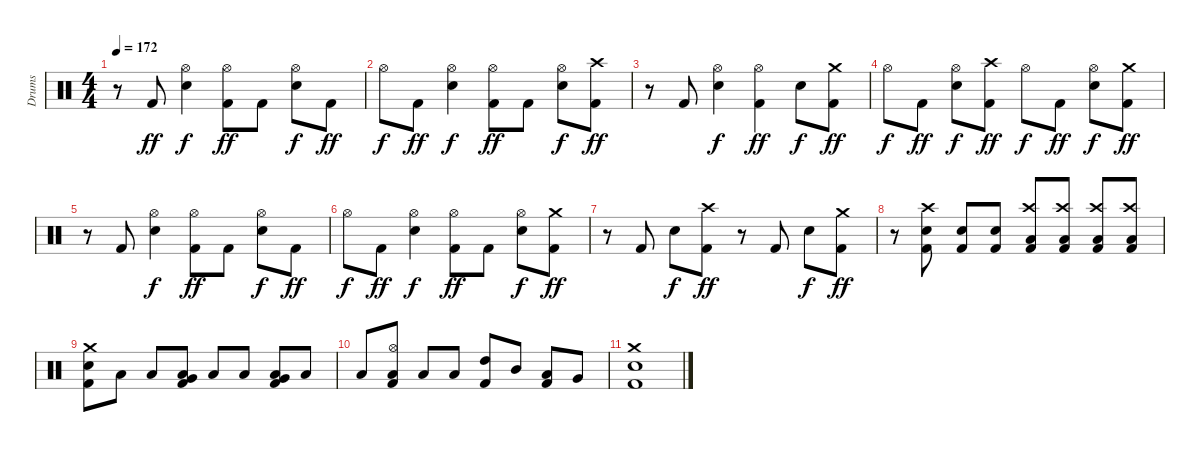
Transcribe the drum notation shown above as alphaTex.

\track ("Drums" "Drums") {instrument percussion}
\staff {score}
\articulation defaults
\ts (4 4)
\tempo 172
\clef neutral
\ks c
r.8{dy ff} "Kick (hit) 2".8 ("Hi-Hat (open)" "Electric Snare (hit)").4{dy f} ("Hi-Hat (open)" "Kick (hit) 2").8{dy ff} "Kick (hit) 2".8 ("Hi-Hat (open)" "Electric Snare (hit)").8{dy f} "Kick (hit) 2".8{dy ff} |
"Hi-Hat (open)".8{dy f} "Kick (hit) 2".8{dy ff} ("Hi-Hat (open)" "Electric Snare (hit)").4{dy f} ("Hi-Hat (open)" "Kick (hit) 2").8{dy ff} "Kick (hit) 2".8 ("Hi-Hat (open)" "Electric Snare (hit)").8{dy f} ("Crash high (hit)" "Kick (hit) 2").8{dy ff} |
r.8 "Kick (hit) 2".8 ("Hi-Hat (open)" "Electric Snare (hit)").4{dy f} ("Hi-Hat (open)" "Kick (hit) 2").4{dy ff} "Electric Snare (hit)".8{dy f} ("Crash medium (hit)" "Kick (hit) 2").8{dy ff} |
"Hi-Hat (open)".8{dy f} "Kick (hit) 2".8{dy ff} ("Hi-Hat (open)" "Electric Snare (hit)").8{dy f} ("Crash high (hit)" "Kick (hit) 2").8{dy ff} "Hi-Hat (open)".8{dy f} "Kick (hit) 2".8{dy ff} ("Hi-Hat (open)" "Electric Snare (hit)").8{dy f} ("Crash medium (hit)" "Kick (hit) 2").8{dy ff} |
r.8 "Kick (hit) 2".8 ("Hi-Hat (open)" "Electric Snare (hit)").4{dy f} ("Hi-Hat (open)" "Kick (hit) 2").8{dy ff} "Kick (hit) 2".8 ("Hi-Hat (open)" "Electric Snare (hit)").8{dy f} "Kick (hit) 2".8{dy ff} |
"Hi-Hat (open)".8{dy f} "Kick (hit) 2".8{dy ff} ("Hi-Hat (open)" "Electric Snare (hit)").4{dy f} ("Hi-Hat (open)" "Kick (hit) 2").8{dy ff} "Kick (hit) 2".8 ("Hi-Hat (open)" "Electric Snare (hit)").8{dy f} ("Crash medium (hit)" "Kick (hit) 2").8{dy ff} |
r.8 "Kick (hit) 2".8 "Electric Snare (hit)".8{dy f} ("Crash high (hit)" "Kick (hit) 2").8{dy ff} r.8 "Kick (hit) 2".8 "Electric Snare (hit)".8{dy f} ("Crash medium (hit)" "Kick (hit) 2").8{dy ff} |
r.8 ("Crash high (hit)" "Electric Snare (hit)" "Kick (hit) 2").8 ("Electric Snare (hit)" "Kick (hit) 2").8 ("Electric Snare (hit)" "Kick (hit) 2").8 ("Crash high (hit)" "Low Floor Tom (hit)" "Kick (hit) 2").8 ("Crash high (hit)" "Low Floor Tom (hit)" "Kick (hit) 2").8 ("Crash high (hit)" "Low Floor Tom (hit)" "Kick (hit) 2").8 ("Crash high (hit)" "Low Floor Tom (hit)" "Kick (hit) 2").8 |
("Crash medium (hit)" "Electric Snare (hit)" "Kick (hit) 2").8 "Low Floor Tom (hit)".8 "Low Floor Tom (hit)".8 ("Low Floor Tom (hit)" "Very Low Tom (hit)" "Kick (hit) 2").8 "Low Floor Tom (hit)".8 "Low Floor Tom (hit)".8 ("Low Floor Tom (hit)" "Very Low Tom (hit)" "Kick (hit) 2").8 "Low Floor Tom (hit)".8 |
"Low Floor Tom (hit)".8 ("Hi-Hat (open)" "Low Floor Tom (hit)" "Kick (hit) 2").8 "Low Floor Tom (hit)".8 "Low Floor Tom (hit)".8 ("High Tom (hit)" "Kick (hit) 2").8 "Mid Tom (hit)".8 ("Low Tom (hit)" "Kick (hit) 2").8 "Very Low Tom (hit)".8 |
("Crash medium (hit)" "Electric Snare (hit)" "Kick (hit) 2").1
